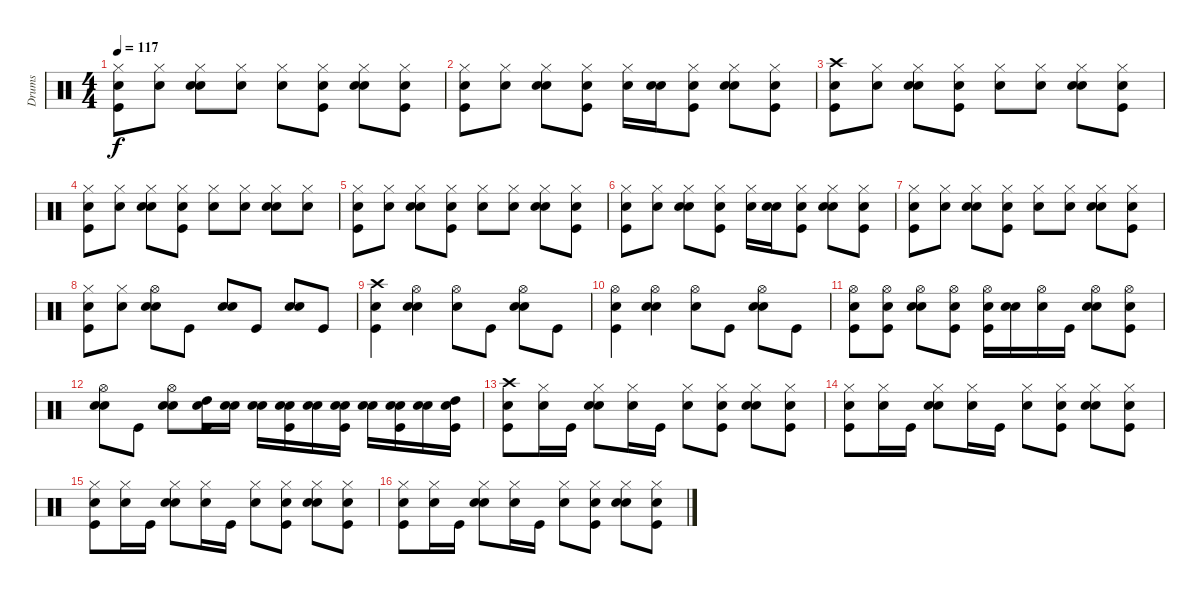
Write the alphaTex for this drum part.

\track ("Drums" "Drums") {instrument percussion}
\staff {score}
\articulation defaults
\ts (4 4)
\tempo 117
\clef neutral
\ks c
("Snare (hit)" "Kick (hit)" "Hi-Hat (closed)").8{dy f} ("Snare (hit)" "Hi-Hat (closed)").8 ("Snare (hit)" "Electric Snare (hit)" "Hi-Hat (closed)").8 ("Snare (hit)" "Hi-Hat (closed)").8 ("Snare (hit)" "Hi-Hat (closed)").8 ("Snare (hit)" "Kick (hit)" "Hi-Hat (closed)").8 ("Snare (hit)" "Electric Snare (hit)" "Hi-Hat (closed)").8 ("Snare (hit)" "Kick (hit)" "Hi-Hat (closed)").8 |
("Snare (hit)" "Kick (hit)" "Hi-Hat (closed)").8 ("Snare (hit)" "Hi-Hat (closed)").8 ("Snare (hit)" "Electric Snare (hit)" "Hi-Hat (closed)").8 ("Snare (hit)" "Kick (hit)" "Hi-Hat (closed)").8 ("Snare (hit)" "Hi-Hat (closed)").16 ("Snare (hit)" "Electric Snare (hit)").16 ("Snare (hit)" "Kick (hit)" "Hi-Hat (closed)").8 ("Snare (hit)" "Electric Snare (hit)" "Hi-Hat (closed)").8 ("Snare (hit)" "Kick (hit)" "Hi-Hat (closed)").8 |
("Snare (hit)" "Kick (hit)" "Crash high (hit)").8 ("Snare (hit)" "Hi-Hat (closed)").8 ("Snare (hit)" "Electric Snare (hit)" "Hi-Hat (closed)").8 ("Snare (hit)" "Kick (hit)" "Hi-Hat (closed)").8 ("Snare (hit)" "Hi-Hat (closed)").8 ("Snare (hit)" "Hi-Hat (closed)").8 ("Snare (hit)" "Electric Snare (hit)" "Hi-Hat (closed)").8 ("Snare (hit)" "Kick (hit)" "Hi-Hat (closed)").8 |
("Snare (hit)" "Kick (hit)" "Hi-Hat (closed)").8 ("Snare (hit)" "Hi-Hat (closed)").8 ("Snare (hit)" "Electric Snare (hit)" "Hi-Hat (closed)").8 ("Snare (hit)" "Kick (hit)" "Hi-Hat (closed)").8 ("Snare (hit)" "Hi-Hat (closed)").8 ("Snare (hit)" "Hi-Hat (closed)").8 ("Snare (hit)" "Electric Snare (hit)" "Hi-Hat (closed)").8 ("Snare (hit)" "Hi-Hat (closed)").8 |
("Snare (hit)" "Kick (hit)" "Hi-Hat (closed)").8 ("Snare (hit)" "Hi-Hat (closed)").8 ("Snare (hit)" "Electric Snare (hit)" "Hi-Hat (closed)").8 ("Snare (hit)" "Kick (hit)" "Hi-Hat (closed)").8 ("Snare (hit)" "Hi-Hat (closed)").8 ("Snare (hit)" "Hi-Hat (closed)").8 ("Snare (hit)" "Electric Snare (hit)" "Hi-Hat (closed)").8 ("Snare (hit)" "Kick (hit)" "Hi-Hat (closed)").8 |
("Snare (hit)" "Kick (hit)" "Hi-Hat (closed)").8 ("Snare (hit)" "Hi-Hat (closed)").8 ("Snare (hit)" "Electric Snare (hit)" "Hi-Hat (closed)").8 ("Snare (hit)" "Kick (hit)" "Hi-Hat (closed)").8 ("Snare (hit)" "Hi-Hat (closed)").16 ("Snare (hit)" "Electric Snare (hit)").16 ("Snare (hit)" "Kick (hit)" "Hi-Hat (closed)").8 ("Snare (hit)" "Electric Snare (hit)" "Hi-Hat (closed)").8 ("Snare (hit)" "Kick (hit)" "Hi-Hat (closed)").8 |
("Snare (hit)" "Kick (hit)" "Hi-Hat (closed)").8 ("Snare (hit)" "Hi-Hat (closed)").8 ("Snare (hit)" "Electric Snare (hit)" "Hi-Hat (closed)").8 ("Snare (hit)" "Kick (hit)" "Hi-Hat (closed)").8 ("Snare (hit)" "Hi-Hat (closed)").8 ("Snare (hit)" "Hi-Hat (closed)").8 ("Snare (hit)" "Electric Snare (hit)" "Hi-Hat (closed)").8 ("Snare (hit)" "Kick (hit)" "Hi-Hat (closed)").8 |
("Snare (hit)" "Kick (hit)" "Hi-Hat (closed)").8 ("Snare (hit)" "Hi-Hat (closed)").8 ("Snare (hit)" "Electric Snare (hit)" "Hi-Hat (open)").8 "Kick (hit)".8 ("Snare (hit)" "Electric Snare (hit)").8 "Kick (hit)".8 ("Snare (hit)" "Electric Snare (hit)").8 "Kick (hit)".8 |
("Snare (hit)" "Kick (hit)" "Crash high (hit)").4 ("Snare (hit)" "Electric Snare (hit)" "Hi-Hat (open)").4 ("Snare (hit)" "Hi-Hat (open)").8 "Kick (hit)".8 ("Snare (hit)" "Electric Snare (hit)" "Hi-Hat (open)").8 "Kick (hit)".8 |
("Snare (hit)" "Kick (hit)" "Hi-Hat (open)").4 ("Snare (hit)" "Electric Snare (hit)" "Hi-Hat (open)").4 ("Snare (hit)" "Hi-Hat (open)").8 "Kick (hit)".8 ("Snare (hit)" "Electric Snare (hit)" "Hi-Hat (open)").8 "Kick (hit)".8 |
("Snare (hit)" "Kick (hit)" "Hi-Hat (open)").8 ("Snare (hit)" "Kick (hit)" "Hi-Hat (open)").8 ("Snare (hit)" "Electric Snare (hit)" "Hi-Hat (open)").8 ("Snare (hit)" "Kick (hit)" "Hi-Hat (open)").8 ("Snare (hit)" "Kick (hit)" "Hi-Hat (open)").16 ("Snare (hit)" "Electric Snare (hit)").16 ("Snare (hit)" "Hi-Hat (open)").16 "Kick (hit)".16 ("Snare (hit)" "Electric Snare (hit)" "Hi-Hat (open)").8 ("Snare (hit)" "Kick (hit)" "Hi-Hat (open)").8 |
("Snare (hit)" "Electric Snare (hit)" "Hi-Hat (open)").8 "Kick (hit)".8 ("Snare (hit)" "Electric Snare (hit)" "Hi-Hat (open)").8 ("Snare (hit)" "Kick (hit)" "High Tom (hit)").16 ("Snare (hit)" "Electric Snare (hit)").16 ("Snare (hit)" "Electric Snare (hit)").16 ("Snare (hit)" "Kick (hit)" "Electric Snare (hit)").16 ("Snare (hit)" "Electric Snare (hit)").16 ("Snare (hit)" "Kick (hit)" "Electric Snare (hit)").16 ("Snare (hit)" "Electric Snare (hit)").16 ("Snare (hit)" "Kick (hit)" "Electric Snare (hit)").16 ("Snare (hit)" "Electric Snare (hit)").16 ("Snare (hit)" "Kick (hit)" "High Tom (hit)").16 |
("Snare (hit)" "Kick (hit)" "Crash high (hit)").8 ("Snare (hit)" "Hi-Hat (closed)").16 "Kick (hit)".16 ("Snare (hit)" "Electric Snare (hit)" "Hi-Hat (closed)").8 ("Snare (hit)" "Hi-Hat (closed)").16 "Kick (hit)".16 ("Snare (hit)" "Hi-Hat (closed)").8 ("Snare (hit)" "Kick (hit)" "Hi-Hat (closed)").8 ("Snare (hit)" "Electric Snare (hit)" "Hi-Hat (closed)").8 ("Snare (hit)" "Kick (hit)" "Hi-Hat (closed)").8 |
("Snare (hit)" "Kick (hit)" "Hi-Hat (closed)").8 ("Snare (hit)" "Hi-Hat (closed)").16 "Kick (hit)".16 ("Snare (hit)" "Electric Snare (hit)" "Hi-Hat (closed)").8 ("Snare (hit)" "Hi-Hat (closed)").16 "Kick (hit)".16 ("Snare (hit)" "Hi-Hat (closed)").8 ("Snare (hit)" "Kick (hit)" "Hi-Hat (closed)").8 ("Snare (hit)" "Electric Snare (hit)" "Hi-Hat (closed)").8 ("Snare (hit)" "Kick (hit)" "Hi-Hat (closed)").8 |
("Snare (hit)" "Kick (hit)" "Hi-Hat (closed)").8 ("Snare (hit)" "Hi-Hat (closed)").16 "Kick (hit)".16 ("Snare (hit)" "Electric Snare (hit)" "Hi-Hat (closed)").8 ("Snare (hit)" "Hi-Hat (closed)").16 "Kick (hit)".16 ("Snare (hit)" "Hi-Hat (closed)").8 ("Snare (hit)" "Kick (hit)" "Hi-Hat (closed)").8 ("Snare (hit)" "Electric Snare (hit)" "Hi-Hat (closed)").8 ("Snare (hit)" "Kick (hit)" "Hi-Hat (closed)").8 |
("Snare (hit)" "Kick (hit)" "Hi-Hat (closed)").8 ("Snare (hit)" "Hi-Hat (closed)").16 "Kick (hit)".16 ("Snare (hit)" "Electric Snare (hit)" "Hi-Hat (closed)").8 ("Snare (hit)" "Hi-Hat (closed)").16 "Kick (hit)".16 ("Snare (hit)" "Hi-Hat (closed)").8 ("Snare (hit)" "Kick (hit)" "Hi-Hat (closed)").8 ("Snare (hit)" "Electric Snare (hit)" "Hi-Hat (closed)").8 ("Snare (hit)" "Kick (hit)" "Hi-Hat (closed)").8
